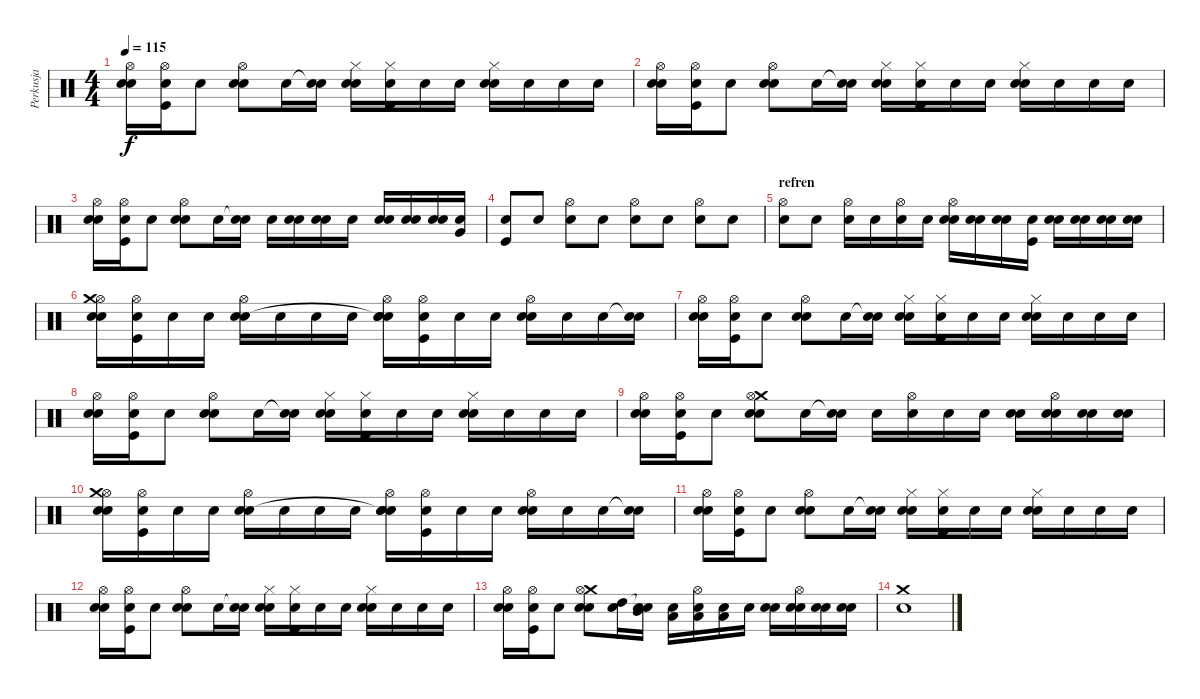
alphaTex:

\track ("Perkusja" "Perkusja") {instrument percussion}
\staff {score}
\articulation defaults
\ts (4 4)
\tempo 115
\clef neutral
\ks c
("Hi-Hat (open)" "Snare (hit) 2" "Snare (hit)").16{dy f} ("Hi-Hat (open)" "Kick (hit)" "Snare (hit)").16 "Snare (hit)".8 ("Electric Snare (hit)" "Hi-Hat (open)" "Snare (hit)").8 "Snare (hit)".16 ("Snare (hit)"{t} "Snare (hit)").16 ("Hi-Hat (closed)" "Snare (hit) 2" "Snare (hit)").16 ("Hi-Hat (closed)" "Kick (hit)" "Snare (hit)").16 "Snare (hit)".16 "Snare (hit)".16 ("Electric Snare (hit)" "Hi-Hat (closed)" "Snare (hit)").16 "Snare (hit)".16 "Snare (hit)".16 "Snare (hit)".16 |
("Hi-Hat (open)" "Snare (hit) 2" "Snare (hit)").16 ("Hi-Hat (open)" "Kick (hit)" "Snare (hit)").16 "Snare (hit)".8 ("Electric Snare (hit)" "Hi-Hat (open)" "Snare (hit)").8 "Snare (hit)".16 ("Snare (hit)"{t} "Snare (hit)").16 ("Hi-Hat (closed)" "Snare (hit) 2" "Snare (hit)").16 ("Hi-Hat (closed)" "Kick (hit)" "Snare (hit)").16 "Snare (hit)".16 "Snare (hit)".16 ("Electric Snare (hit)" "Hi-Hat (closed)" "Snare (hit)").16 "Snare (hit)".16 "Snare (hit)".16 "Snare (hit)".16 |
("Hi-Hat (open)" "Snare (hit) 2" "Snare (hit)").16 ("Hi-Hat (open)" "Kick (hit)" "Snare (hit)").16 "Snare (hit)".8 ("Electric Snare (hit)" "Hi-Hat (open)" "Snare (hit)").8 "Snare (hit)".16 ("Snare (hit)"{t} "Snare (hit)").16 "Snare (hit)".16 ("Electric Snare (hit)" "Snare (hit)").16 ("Electric Snare (hit)" "Snare (hit)").16 "Snare (hit)".16 ("Electric Snare (hit)" "Snare (hit)").16 ("Electric Snare (hit)" "Snare (hit)").16 ("Electric Snare (hit)" "Snare (hit)").16 ("Very Low Tom (hit)" "Snare (hit)").16 |
("Kick (hit)" "Snare (hit)").8 "Snare (hit)".8 ("Hi-Hat (open)" "Snare (hit)").8 "Snare (hit)".8 ("Hi-Hat (open)" "Snare (hit)").8 "Snare (hit)".8 ("Hi-Hat (open)" "Snare (hit)").8 "Snare (hit)".8 |
\section ("" "refren")
("Hi-Hat (open)" "Snare (hit)").8 "Snare (hit)".8 ("Hi-Hat (open)" "Snare (hit)").16 "Snare (hit)".16 ("Hi-Hat (open)" "Snare (hit)").16 "Snare (hit)".16 ("Hi-Hat (open)" "Snare (hit) 2" "Snare (hit)").16 ("Snare (hit) 2" "Snare (hit)").16 ("Snare (hit) 2" "Snare (hit)").16 ("Kick (hit)" "Snare (hit)").16 ("Electric Snare (hit)" "Snare (hit)").16 ("Electric Snare (hit)" "Snare (hit)").16 ("Electric Snare (hit)" "Snare (hit)").16 ("Electric Snare (hit)" "Snare (hit)").16 |
("Hi-Hat (open)" "Electric Snare (hit)" "Crash medium (hit)" "Snare (hit)").16 ("Hi-Hat (open)" "Kick (hit)" "Snare (hit)").16 "Snare (hit)".16 "Snare (hit)".16 ("Electric Snare (hit)" "Hi-Hat (open)" "Snare (hit)").16 "Snare (hit)".16 "Snare (hit)".16 "Snare (hit)".16 ("Hi-Hat (open)" "Snare (hit) 2" "Electric Snare (hit)"{t} "Snare (hit)").16 ("Hi-Hat (open)" "Kick (hit)" "Snare (hit)").16 "Snare (hit)".16 "Snare (hit)".16 ("Electric Snare (hit)" "Hi-Hat (open)" "Snare (hit)").16 "Snare (hit)".16 "Snare (hit)".16 ("Snare (hit)"{t} "Snare (hit)").16 |
("Hi-Hat (open)" "Snare (hit) 2" "Snare (hit)").16 ("Hi-Hat (open)" "Kick (hit)" "Snare (hit)").16 "Snare (hit)".8 ("Electric Snare (hit)" "Hi-Hat (open)" "Snare (hit)").8 "Snare (hit)".16 ("Snare (hit)"{t} "Snare (hit)").16 ("Hi-Hat (closed)" "Snare (hit) 2" "Snare (hit)").16 ("Hi-Hat (closed)" "Kick (hit)" "Snare (hit)").16 "Snare (hit)".16 "Snare (hit)".16 ("Electric Snare (hit)" "Hi-Hat (closed)" "Snare (hit)").16 "Snare (hit)".16 "Snare (hit)".16 "Snare (hit)".16 |
("Hi-Hat (open)" "Snare (hit) 2" "Snare (hit)").16 ("Hi-Hat (open)" "Kick (hit)" "Snare (hit)").16 "Snare (hit)".8 ("Electric Snare (hit)" "Hi-Hat (open)" "Snare (hit)").8 "Snare (hit)".16 ("Snare (hit)"{t} "Snare (hit)").16 ("Hi-Hat (closed)" "Snare (hit) 2" "Snare (hit)").16 ("Hi-Hat (closed)" "Kick (hit)" "Snare (hit)").16 "Snare (hit)".16 "Snare (hit)".16 ("Electric Snare (hit)" "Hi-Hat (closed)" "Snare (hit)").16 "Snare (hit)".16 "Snare (hit)".16 "Snare (hit)".16 |
("Hi-Hat (open)" "Snare (hit) 2" "Snare (hit)").16 ("Hi-Hat (open)" "Kick (hit)" "Snare (hit)").16 "Snare (hit)".8 ("Electric Snare (hit)" "Crash medium (hit)" "Hi-Hat (open)" "Snare (hit)").8 "Snare (hit)".16 ("Snare (hit)"{t} "Snare (hit)").16 "Snare (hit)".16 ("Hi-Hat (open)" "Snare (hit)").16 "Snare (hit)".16 "Snare (hit)".16 ("Electric Snare (hit)" "Snare (hit)").16 ("Hi-Hat (open)" "Electric Snare (hit)" "Snare (hit)").16 ("Electric Snare (hit)" "Snare (hit)").16 ("Snare (hit) 2" "Snare (hit)").16 |
("Hi-Hat (open)" "Electric Snare (hit)" "Crash medium (hit)" "Snare (hit)").16 ("Hi-Hat (open)" "Kick (hit)" "Snare (hit)").16 "Snare (hit)".16 "Snare (hit)".16 ("Electric Snare (hit)" "Hi-Hat (open)" "Snare (hit)").16 "Snare (hit)".16 "Snare (hit)".16 "Snare (hit)".16 ("Hi-Hat (open)" "Snare (hit) 2" "Electric Snare (hit)"{t} "Snare (hit)").16 ("Hi-Hat (open)" "Kick (hit)" "Snare (hit)").16 "Snare (hit)".16 "Snare (hit)".16 ("Electric Snare (hit)" "Hi-Hat (open)" "Snare (hit)").16 "Snare (hit)".16 "Snare (hit)".16 ("Snare (hit)"{t} "Snare (hit)").16 |
("Hi-Hat (open)" "Snare (hit) 2" "Snare (hit)").16 ("Hi-Hat (open)" "Kick (hit)" "Snare (hit)").16 "Snare (hit)".8 ("Electric Snare (hit)" "Hi-Hat (open)" "Snare (hit)").8 "Snare (hit)".16 ("Snare (hit)"{t} "Snare (hit)").16 ("Hi-Hat (closed)" "Snare (hit) 2" "Snare (hit)").16 ("Hi-Hat (closed)" "Kick (hit)" "Snare (hit)").16 "Snare (hit)".16 "Snare (hit)".16 ("Electric Snare (hit)" "Hi-Hat (closed)" "Snare (hit)").16 "Snare (hit)".16 "Snare (hit)".16 "Snare (hit)".16 |
("Hi-Hat (open)" "Snare (hit) 2" "Snare (hit)").16 ("Hi-Hat (open)" "Kick (hit)" "Snare (hit)").16 "Snare (hit)".8 ("Electric Snare (hit)" "Hi-Hat (open)" "Snare (hit)").8 "Snare (hit)".16 ("Snare (hit)"{t} "Snare (hit)").16 ("Hi-Hat (closed)" "Snare (hit) 2" "Snare (hit)").16 ("Hi-Hat (closed)" "Kick (hit)" "Snare (hit)").16 "Snare (hit)".16 "Snare (hit)".16 ("Electric Snare (hit)" "Hi-Hat (closed)" "Snare (hit)").16 "Snare (hit)".16 "Snare (hit)".16 "Snare (hit)".16 |
("Hi-Hat (open)" "Snare (hit) 2" "Snare (hit)").16 ("Hi-Hat (open)" "Kick (hit)" "Snare (hit)").16 "Snare (hit)".8 ("Electric Snare (hit)" "Crash medium (hit)" "Hi-Hat (open)" "Snare (hit)").8 ("High Tom (hit)" "Snare (hit)").16 ("Snare (hit)"{t} "Mid Tom (hit)" "Snare (hit)").16 ("Low Tom (hit)" "Snare (hit)").16 ("Hi-Hat (open)" "Low Tom (hit)" "Snare (hit)").16 ("Low Tom (hit)" "Snare (hit)").16 "Snare (hit)".16 ("Electric Snare (hit)" "Snare (hit)").16 ("Hi-Hat (open)" "Electric Snare (hit)" "Snare (hit)").16 ("Electric Snare (hit)" "Snare (hit)").16 ("Electric Snare (hit)" "Snare (hit)").16 |
("Crash medium (hit)" "Electric Snare (hit)").1
